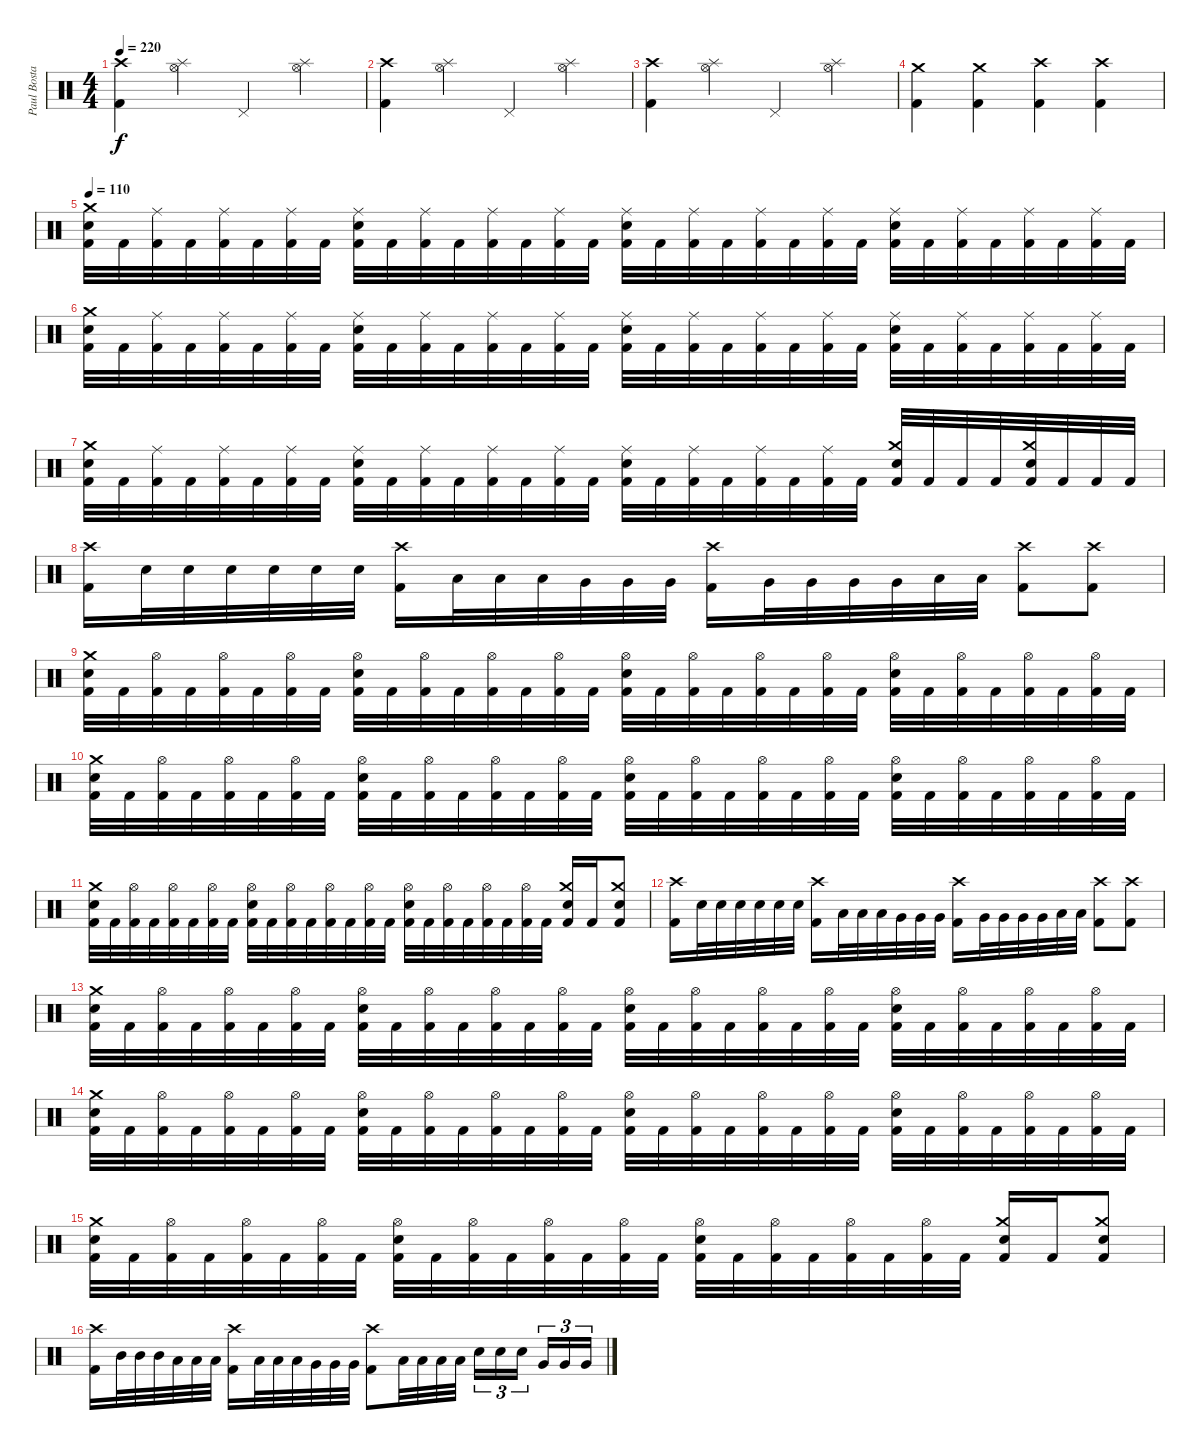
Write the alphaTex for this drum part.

\track ("Paul Bostaph" "Paul Bosta") {instrument percussion}
\staff {score}
\articulation defaults
\ts (4 4)
\tempo 220
\tempo 98
\tempo 220
\clef neutral
\ks c
("Crash high (hit)" "Kick (hit) 2").4{dy f} ("Splash (hit)" "Hi-Hat (open)").4 "Pedal Hi-Hat (hit)".4 ("Splash (hit)" "Hi-Hat (open)").4 |
("Crash high (hit)" "Kick (hit) 2").4 ("Splash (hit)" "Hi-Hat (open)").4 "Pedal Hi-Hat (hit)".4 ("Splash (hit)" "Hi-Hat (open)").4 |
("Crash high (hit)" "Kick (hit) 2").4 ("Splash (hit)" "Hi-Hat (open)").4 "Pedal Hi-Hat (hit)".4 ("Splash (hit)" "Hi-Hat (open)").4 |
("Crash medium (hit)" "Kick (hit) 2").4 ("Crash medium (hit)" "Kick (hit) 2").4 ("Crash high (hit)" "Kick (hit) 2").4 ("Crash high (hit)" "Kick (hit) 2").4 |
\tempo 110
("Crash medium (hit)" "Electric Snare (hit)" "Kick (hit) 2").32 "Kick (hit) 2".32 ("Ride (middle)" "Kick (hit) 2").32 "Kick (hit) 2".32 ("Ride (middle)" "Kick (hit) 2").32 "Kick (hit) 2".32 ("Ride (middle)" "Kick (hit) 2").32 "Kick (hit) 2".32 ("Ride (middle)" "Electric Snare (hit)" "Kick (hit) 2").32 "Kick (hit) 2".32 ("Ride (middle)" "Kick (hit) 2").32 "Kick (hit) 2".32 ("Ride (middle)" "Kick (hit) 2").32 "Kick (hit) 2".32 ("Ride (middle)" "Kick (hit) 2").32 "Kick (hit) 2".32 ("Ride (middle)" "Electric Snare (hit)" "Kick (hit) 2").32 "Kick (hit) 2".32 ("Ride (middle)" "Kick (hit) 2").32 "Kick (hit) 2".32 ("Ride (middle)" "Kick (hit) 2").32 "Kick (hit) 2".32 ("Ride (middle)" "Kick (hit) 2").32 "Kick (hit) 2".32 ("Ride (middle)" "Electric Snare (hit)" "Kick (hit) 2").32 "Kick (hit) 2".32 ("Ride (middle)" "Kick (hit) 2").32 "Kick (hit) 2".32 ("Ride (middle)" "Kick (hit) 2").32 "Kick (hit) 2".32 ("Ride (middle)" "Kick (hit) 2").32 "Kick (hit) 2".32 |
("Crash medium (hit)" "Electric Snare (hit)" "Kick (hit) 2").32 "Kick (hit) 2".32 ("Ride (middle)" "Kick (hit) 2").32 "Kick (hit) 2".32 ("Ride (middle)" "Kick (hit) 2").32 "Kick (hit) 2".32 ("Ride (middle)" "Kick (hit) 2").32 "Kick (hit) 2".32 ("Ride (middle)" "Electric Snare (hit)" "Kick (hit) 2").32 "Kick (hit) 2".32 ("Ride (middle)" "Kick (hit) 2").32 "Kick (hit) 2".32 ("Ride (middle)" "Kick (hit) 2").32 "Kick (hit) 2".32 ("Ride (middle)" "Kick (hit) 2").32 "Kick (hit) 2".32 ("Ride (middle)" "Electric Snare (hit)" "Kick (hit) 2").32 "Kick (hit) 2".32 ("Ride (middle)" "Kick (hit) 2").32 "Kick (hit) 2".32 ("Ride (middle)" "Kick (hit) 2").32 "Kick (hit) 2".32 ("Ride (middle)" "Kick (hit) 2").32 "Kick (hit) 2".32 ("Ride (middle)" "Electric Snare (hit)" "Kick (hit) 2").32 "Kick (hit) 2".32 ("Ride (middle)" "Kick (hit) 2").32 "Kick (hit) 2".32 ("Ride (middle)" "Kick (hit) 2").32 "Kick (hit) 2".32 ("Ride (middle)" "Kick (hit) 2").32 "Kick (hit) 2".32 |
("Crash medium (hit)" "Electric Snare (hit)" "Kick (hit) 2").32 "Kick (hit) 2".32 ("Ride (middle)" "Kick (hit) 2").32 "Kick (hit) 2".32 ("Ride (middle)" "Kick (hit) 2").32 "Kick (hit) 2".32 ("Ride (middle)" "Kick (hit) 2").32 "Kick (hit) 2".32 ("Ride (middle)" "Electric Snare (hit)" "Kick (hit) 2").32 "Kick (hit) 2".32 ("Ride (middle)" "Kick (hit) 2").32 "Kick (hit) 2".32 ("Ride (middle)" "Kick (hit) 2").32 "Kick (hit) 2".32 ("Ride (middle)" "Kick (hit) 2").32 "Kick (hit) 2".32 ("Ride (middle)" "Electric Snare (hit)" "Kick (hit) 2").32 "Kick (hit) 2".32 ("Ride (middle)" "Kick (hit) 2").32 "Kick (hit) 2".32 ("Ride (middle)" "Kick (hit) 2").32 "Kick (hit) 2".32 ("Ride (middle)" "Kick (hit) 2").32 "Kick (hit) 2".32 ("Crash medium (hit)" "Electric Snare (hit)" "Kick (hit) 2").32 "Kick (hit) 2".32 "Kick (hit) 2".32 "Kick (hit) 2".32 ("Crash medium (hit)" "Electric Snare (hit)" "Kick (hit) 2").32 "Kick (hit) 2".32 "Kick (hit) 2".32 "Kick (hit) 2".32 |
("Crash high (hit)" "Kick (hit) 2").16 "Electric Snare (hit)".32 "Electric Snare (hit)".32 "Electric Snare (hit)".32 "Electric Snare (hit)".32 "Electric Snare (hit)".32 "Electric Snare (hit)".32 ("Kick (hit) 2" "Crash high (hit)").16 "Low Tom (hit)".32 "Low Tom (hit)".32 "Low Tom (hit)".32 "Very Low Tom (hit)".32 "Very Low Tom (hit)".32 "Very Low Tom (hit)".32 ("Kick (hit) 2" "Crash high (hit)").16 "Very Low Tom (hit)".32 "Very Low Tom (hit)".32 "Very Low Tom (hit)".32 "Very Low Tom (hit)".32 "Low Floor Tom (hit)".32 "Low Floor Tom (hit)".32 ("Kick (hit) 2" "Crash high (hit)").8 ("Kick (hit) 2" "Crash high (hit)").8 |
("Crash medium (hit)" "Electric Snare (hit)" "Kick (hit) 2").32 "Kick (hit) 2".32 ("Hi-Hat (open)" "Kick (hit) 2").32 "Kick (hit) 2".32 ("Hi-Hat (open)" "Kick (hit) 2").32 "Kick (hit) 2".32 ("Hi-Hat (open)" "Kick (hit) 2").32 "Kick (hit) 2".32 ("Hi-Hat (open)" "Electric Snare (hit)" "Kick (hit) 2").32 "Kick (hit) 2".32 ("Hi-Hat (open)" "Kick (hit) 2").32 "Kick (hit) 2".32 ("Hi-Hat (open)" "Kick (hit) 2").32 "Kick (hit) 2".32 ("Hi-Hat (open)" "Kick (hit) 2").32 "Kick (hit) 2".32 ("Hi-Hat (open)" "Electric Snare (hit)" "Kick (hit) 2").32 "Kick (hit) 2".32 ("Hi-Hat (open)" "Kick (hit) 2").32 "Kick (hit) 2".32 ("Hi-Hat (open)" "Kick (hit) 2").32 "Kick (hit) 2".32 ("Hi-Hat (open)" "Kick (hit) 2").32 "Kick (hit) 2".32 ("Hi-Hat (open)" "Electric Snare (hit)" "Kick (hit) 2").32 "Kick (hit) 2".32 ("Hi-Hat (open)" "Kick (hit) 2").32 "Kick (hit) 2".32 ("Hi-Hat (open)" "Kick (hit) 2").32 "Kick (hit) 2".32 ("Hi-Hat (open)" "Kick (hit) 2").32 "Kick (hit) 2".32 |
("Crash medium (hit)" "Electric Snare (hit)" "Kick (hit) 2").32 "Kick (hit) 2".32 ("Hi-Hat (open)" "Kick (hit) 2").32 "Kick (hit) 2".32 ("Hi-Hat (open)" "Kick (hit) 2").32 "Kick (hit) 2".32 ("Hi-Hat (open)" "Kick (hit) 2").32 "Kick (hit) 2".32 ("Hi-Hat (open)" "Electric Snare (hit)" "Kick (hit) 2").32 "Kick (hit) 2".32 ("Hi-Hat (open)" "Kick (hit) 2").32 "Kick (hit) 2".32 ("Hi-Hat (open)" "Kick (hit) 2").32 "Kick (hit) 2".32 ("Hi-Hat (open)" "Kick (hit) 2").32 "Kick (hit) 2".32 ("Hi-Hat (open)" "Electric Snare (hit)" "Kick (hit) 2").32 "Kick (hit) 2".32 ("Hi-Hat (open)" "Kick (hit) 2").32 "Kick (hit) 2".32 ("Hi-Hat (open)" "Kick (hit) 2").32 "Kick (hit) 2".32 ("Hi-Hat (open)" "Kick (hit) 2").32 "Kick (hit) 2".32 ("Hi-Hat (open)" "Electric Snare (hit)" "Kick (hit) 2").32 "Kick (hit) 2".32 ("Hi-Hat (open)" "Kick (hit) 2").32 "Kick (hit) 2".32 ("Hi-Hat (open)" "Kick (hit) 2").32 "Kick (hit) 2".32 ("Hi-Hat (open)" "Kick (hit) 2").32 "Kick (hit) 2".32 |
("Crash medium (hit)" "Electric Snare (hit)" "Kick (hit) 2").32 "Kick (hit) 2".32 ("Hi-Hat (open)" "Kick (hit) 2").32 "Kick (hit) 2".32 ("Hi-Hat (open)" "Kick (hit) 2").32 "Kick (hit) 2".32 ("Hi-Hat (open)" "Kick (hit) 2").32 "Kick (hit) 2".32 ("Hi-Hat (open)" "Electric Snare (hit)" "Kick (hit) 2").32 "Kick (hit) 2".32 ("Hi-Hat (open)" "Kick (hit) 2").32 "Kick (hit) 2".32 ("Hi-Hat (open)" "Kick (hit) 2").32 "Kick (hit) 2".32 ("Hi-Hat (open)" "Kick (hit) 2").32 "Kick (hit) 2".32 ("Hi-Hat (open)" "Electric Snare (hit)" "Kick (hit) 2").32 "Kick (hit) 2".32 ("Hi-Hat (open)" "Kick (hit) 2").32 "Kick (hit) 2".32 ("Hi-Hat (open)" "Kick (hit) 2").32 "Kick (hit) 2".32 ("Hi-Hat (open)" "Kick (hit) 2").32 "Kick (hit) 2".32 ("Crash medium (hit)" "Electric Snare (hit)" "Kick (hit) 2").16 "Kick (hit) 2".16 ("Crash medium (hit)" "Electric Snare (hit)" "Kick (hit) 2").8 |
("Crash high (hit)" "Kick (hit) 2").16 "Electric Snare (hit)".32 "Electric Snare (hit)".32 "Electric Snare (hit)".32 "Electric Snare (hit)".32 "Electric Snare (hit)".32 "Electric Snare (hit)".32 ("Kick (hit) 2" "Crash high (hit)").16 "Low Tom (hit)".32 "Low Tom (hit)".32 "Low Tom (hit)".32 "Very Low Tom (hit)".32 "Very Low Tom (hit)".32 "Very Low Tom (hit)".32 ("Kick (hit) 2" "Crash high (hit)").16 "Very Low Tom (hit)".32 "Very Low Tom (hit)".32 "Very Low Tom (hit)".32 "Very Low Tom (hit)".32 "Low Floor Tom (hit)".32 "Low Floor Tom (hit)".32 ("Kick (hit) 2" "Crash high (hit)").8 ("Kick (hit) 2" "Crash high (hit)").8 |
("Crash medium (hit)" "Electric Snare (hit)" "Kick (hit) 2").32 "Kick (hit) 2".32 ("Hi-Hat (open)" "Kick (hit) 2").32 "Kick (hit) 2".32 ("Hi-Hat (open)" "Kick (hit) 2").32 "Kick (hit) 2".32 ("Hi-Hat (open)" "Kick (hit) 2").32 "Kick (hit) 2".32 ("Hi-Hat (open)" "Electric Snare (hit)" "Kick (hit) 2").32 "Kick (hit) 2".32 ("Hi-Hat (open)" "Kick (hit) 2").32 "Kick (hit) 2".32 ("Hi-Hat (open)" "Kick (hit) 2").32 "Kick (hit) 2".32 ("Hi-Hat (open)" "Kick (hit) 2").32 "Kick (hit) 2".32 ("Hi-Hat (open)" "Electric Snare (hit)" "Kick (hit) 2").32 "Kick (hit) 2".32 ("Hi-Hat (open)" "Kick (hit) 2").32 "Kick (hit) 2".32 ("Hi-Hat (open)" "Kick (hit) 2").32 "Kick (hit) 2".32 ("Hi-Hat (open)" "Kick (hit) 2").32 "Kick (hit) 2".32 ("Hi-Hat (open)" "Electric Snare (hit)" "Kick (hit) 2").32 "Kick (hit) 2".32 ("Hi-Hat (open)" "Kick (hit) 2").32 "Kick (hit) 2".32 ("Hi-Hat (open)" "Kick (hit) 2").32 "Kick (hit) 2".32 ("Hi-Hat (open)" "Kick (hit) 2").32 "Kick (hit) 2".32 |
("Crash medium (hit)" "Electric Snare (hit)" "Kick (hit) 2").32 "Kick (hit) 2".32 ("Hi-Hat (open)" "Kick (hit) 2").32 "Kick (hit) 2".32 ("Hi-Hat (open)" "Kick (hit) 2").32 "Kick (hit) 2".32 ("Hi-Hat (open)" "Kick (hit) 2").32 "Kick (hit) 2".32 ("Hi-Hat (open)" "Electric Snare (hit)" "Kick (hit) 2").32 "Kick (hit) 2".32 ("Hi-Hat (open)" "Kick (hit) 2").32 "Kick (hit) 2".32 ("Hi-Hat (open)" "Kick (hit) 2").32 "Kick (hit) 2".32 ("Hi-Hat (open)" "Kick (hit) 2").32 "Kick (hit) 2".32 ("Hi-Hat (open)" "Electric Snare (hit)" "Kick (hit) 2").32 "Kick (hit) 2".32 ("Hi-Hat (open)" "Kick (hit) 2").32 "Kick (hit) 2".32 ("Hi-Hat (open)" "Kick (hit) 2").32 "Kick (hit) 2".32 ("Hi-Hat (open)" "Kick (hit) 2").32 "Kick (hit) 2".32 ("Hi-Hat (open)" "Electric Snare (hit)" "Kick (hit) 2").32 "Kick (hit) 2".32 ("Hi-Hat (open)" "Kick (hit) 2").32 "Kick (hit) 2".32 ("Hi-Hat (open)" "Kick (hit) 2").32 "Kick (hit) 2".32 ("Hi-Hat (open)" "Kick (hit) 2").32 "Kick (hit) 2".32 |
("Crash medium (hit)" "Electric Snare (hit)" "Kick (hit) 2").32 "Kick (hit) 2".32 ("Hi-Hat (open)" "Kick (hit) 2").32 "Kick (hit) 2".32 ("Hi-Hat (open)" "Kick (hit) 2").32 "Kick (hit) 2".32 ("Hi-Hat (open)" "Kick (hit) 2").32 "Kick (hit) 2".32 ("Hi-Hat (open)" "Electric Snare (hit)" "Kick (hit) 2").32 "Kick (hit) 2".32 ("Hi-Hat (open)" "Kick (hit) 2").32 "Kick (hit) 2".32 ("Hi-Hat (open)" "Kick (hit) 2").32 "Kick (hit) 2".32 ("Hi-Hat (open)" "Kick (hit) 2").32 "Kick (hit) 2".32 ("Hi-Hat (open)" "Electric Snare (hit)" "Kick (hit) 2").32 "Kick (hit) 2".32 ("Hi-Hat (open)" "Kick (hit) 2").32 "Kick (hit) 2".32 ("Hi-Hat (open)" "Kick (hit) 2").32 "Kick (hit) 2".32 ("Hi-Hat (open)" "Kick (hit) 2").32 "Kick (hit) 2".32 ("Crash medium (hit)" "Electric Snare (hit)" "Kick (hit) 2").16 "Kick (hit) 2".16 ("Crash medium (hit)" "Electric Snare (hit)" "Kick (hit) 2").8 |
("Crash high (hit)" "Kick (hit) 2").16 "Mid Tom (hit)".32 "Mid Tom (hit)".32 "Mid Tom (hit)".32 "Low Tom (hit)".32 "Low Tom (hit)".32 "Low Tom (hit)".32 ("Kick (hit) 2" "Crash high (hit)").16 "Low Tom (hit)".32 "Low Tom (hit)".32 "Low Tom (hit)".32 "Very Low Tom (hit)".32 "Very Low Tom (hit)".32 "Very Low Tom (hit)".32 ("Kick (hit) 2" "Crash high (hit)").8 "Low Tom (hit)".32 "Low Tom (hit)".32 "Low Tom (hit)".32 "Low Tom (hit)".32 "Electric Snare (hit)".16{tu (3 2)} "Electric Snare (hit)".16{tu (3 2)} "Electric Snare (hit)".16{tu (3 2)} "Very Low Tom (hit)".16{tu (3 2)} "Very Low Tom (hit)".16{tu (3 2)} "Very Low Tom (hit)".16{tu (3 2)}
